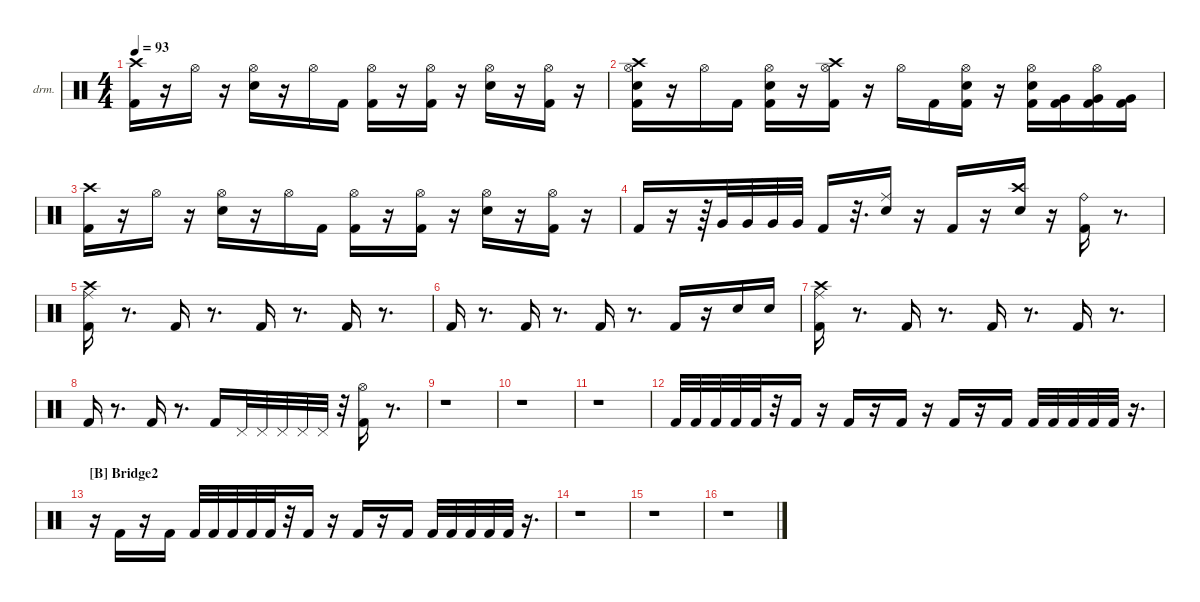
\defaultSystemsLayout 2
\hideDynamics
\bracketExtendMode nobrackets
\firstSystemTrackNameOrientation horizontal
\otherSystemsTrackNameOrientation horizontal
\track ("Drumkit" "drm.") {instrument percussion}
\staff {score}
\articulation defaults
\ts (4 4)
\tempo 93
\clef neutral
\ks c
("Crash high (hit)"{acc #} "Kick (hit) 2").16{dy mf beam Down} r.16{beam Down} "Hi-Hat (open)"{acc #}.16{beam Down} r.16{beam Down} ("Hi-Hat (open)"{acc #} "Snare (hit) 2").16{beam Down} r.16{beam Down} "Hi-Hat (open)"{acc #}.16{beam Down} "Kick (hit) 2".16{beam Down} ("Kick (hit) 2" "Hi-Hat (open)"{acc #}).16{beam Down} r.16{beam Down} ("Hi-Hat (open)"{acc #} "Kick (hit) 2").16{beam Down} r.16{beam Down} ("Snare (hit) 2" "Hi-Hat (open)"{acc #}).16{beam Down} r.16{beam Down} ("Hi-Hat (open)"{acc #} "Kick (hit) 2").16{beam Down} r.16{beam Down} |
("Kick (hit) 2" "Crash high (hit)"{acc #} "Hi-Hat (open)"{acc #} "Snare (hit) 2").16{beam Down} r.16{beam Down} "Hi-Hat (open)"{acc #}.16{beam Down} "Kick (hit) 2".16{beam Down} ("Snare (hit) 2" "Kick (hit) 2" "Hi-Hat (open)"{acc #}).16{beam Down} r.16{beam Down} ("Crash high (hit)"{acc #} "Hi-Hat (open)"{acc #} "Kick (hit) 2").16{beam Down} r.16{beam Down} "Hi-Hat (open)"{acc #}.16{beam Down} "Kick (hit) 2".16{beam Down} ("Kick (hit) 2" "Hi-Hat (open)"{acc #} "Snare (hit) 2").16{beam Down} r.16{beam Down} ("Kick (hit) 2" "Snare (hit) 2" "Hi-Hat (open)"{acc #}).16{beam Down} ("Very Low Tom (hit)" "Kick (hit) 2").16{beam Down} ("Very Low Tom (hit)" "Hi-Hat (open)"{acc #} "Kick (hit) 2").16{beam Down} ("Kick (hit) 2" "Very Low Tom (hit)").16{beam Down} |
("Crash high (hit)"{acc #} "Kick (hit) 2").16{beam Down} r.16{beam Down} "Hi-Hat (open)"{acc #}.16{beam Down} r.16{beam Down} ("Hi-Hat (open)"{acc #} "Snare (hit) 2").16{beam Down} r.16{beam Down} "Hi-Hat (open)"{acc #}.16{beam Down} "Kick (hit) 2".16{beam Down} ("Hi-Hat (open)"{acc #} "Kick (hit) 2").16{beam Down} r.16{beam Down} ("Kick (hit) 2" "Hi-Hat (open)"{acc #}).16{beam Down} r.16{beam Down} ("Hi-Hat (open)"{acc #} "Snare (hit) 2").16{beam Down} r.16{beam Down} ("Kick (hit) 2" "Hi-Hat (open)"{acc #}).16{beam Down} r.16{beam Down} |
"Kick (hit) 2".16{beam Up} r.16{beam Up} r.64{beam Up} "Very Low Tom (hit)".32{beam Up} "Very Low Tom (hit)".32{beam Up} "Very Low Tom (hit)".32{beam Up} "Very Low Tom (hit)".32{beam Up} "Kick (hit) 2".16{beam Up} r.32{d beam Up} ("Snare (hit) 2" "Ride (middle)"{acc #}).16{beam Down} r.16{beam Down} "Kick (hit) 2".16{beam Up} r.16{beam Up} ("Crash high (hit)"{acc #} "Snare (hit) 2").16{beam Down} r.16{beam Down} ("Ride (bell)" "Kick (hit) 2").16{beam Down} r.8{d beam Down} |
("Crash high (hit)"{acc #} "Ride (middle)"{acc #} "Kick (hit) 2").16{beam Down} r.8{d beam Down} "Kick (hit) 2".16{beam Up} r.8{d beam Up} "Kick (hit) 2".16{beam Up} r.8{d beam Up} "Kick (hit) 2".16{beam Up} r.8{d beam Up} |
"Kick (hit) 2".16{beam Up} r.8{d beam Up} "Kick (hit) 2".16{beam Up} r.8{d beam Up} "Kick (hit) 2".16{beam Up} r.8{d beam Up} "Kick (hit) 2".16{beam Up} r.16{beam Up} "Snare (hit) 2".16{beam Down} "Snare (hit) 2".16{beam Down} |
("Kick (hit) 2" "Ride (middle)"{acc #} "Crash high (hit)"{acc #}).16{beam Down} r.8{d beam Down} "Kick (hit) 2".16{beam Up} r.8{d beam Up} "Kick (hit) 2".16{beam Up} r.8{d beam Up} "Kick (hit) 2".16{beam Up} r.8{d beam Up} |
"Kick (hit) 2".16{beam Up} r.8{d beam Up} "Kick (hit) 2".16{beam Up} r.8{d beam Up} "Kick (hit) 2".16{beam Up} "Pedal Hi-Hat (hit)"{acc #}.32{beam Up} "Pedal Hi-Hat (hit)"{acc #}.32{beam Up} "Pedal Hi-Hat (hit)"{acc #}.32{beam Up} "Pedal Hi-Hat (hit)"{acc #}.32{beam Up} "Pedal Hi-Hat (hit)"{acc #}.32{beam Up} r.32{beam Up} ("Hi-Hat (open)"{acc #} "Kick (hit) 2").16{beam Down} r.8{d beam Down} |
r.1{beam Down} |
r.1{beam Down} |
r.1{beam Down} |
"Kick (hit) 2".32{beam Up} "Kick (hit) 2".32{beam Up} "Kick (hit) 2".32{beam Up} "Kick (hit) 2".32{beam Up} "Kick (hit) 2".32{beam Up} r.32{beam Up} "Kick (hit) 2".16{beam Up} r.16{beam Up} "Kick (hit) 2".16{beam Up} r.16{beam Up} "Kick (hit) 2".16{beam Up} r.16{beam Up} "Kick (hit) 2".16{beam Up} r.16{beam Up} "Kick (hit) 2".16{beam Up} "Kick (hit) 2".32{beam Up} "Kick (hit) 2".32{beam Up} "Kick (hit) 2".32{beam Up} "Kick (hit) 2".32{beam Up} "Kick (hit) 2".32{beam Up} r.16{d beam Up} |
\section ("B" "Bridge2")
r.16{beam Down} "Kick (hit) 2".16{beam Up} r.16{beam Up} "Kick (hit) 2".16{beam Up} "Kick (hit) 2".32{beam Up} "Kick (hit) 2".32{beam Up} "Kick (hit) 2".32{beam Up} "Kick (hit) 2".32{beam Up} "Kick (hit) 2".32{beam Up} r.32{beam Up} "Kick (hit) 2".16{beam Up} r.16{beam Up} "Kick (hit) 2".16{beam Up} r.16{beam Up} "Kick (hit) 2".16{beam Up} "Kick (hit) 2".32{beam Up} "Kick (hit) 2".32{beam Up} "Kick (hit) 2".32{beam Up} "Kick (hit) 2".32{beam Up} "Kick (hit) 2".32{beam Up} r.16{d beam Up} |
r.1{beam Down} |
r.1{beam Down} |
r.1{beam Down}
